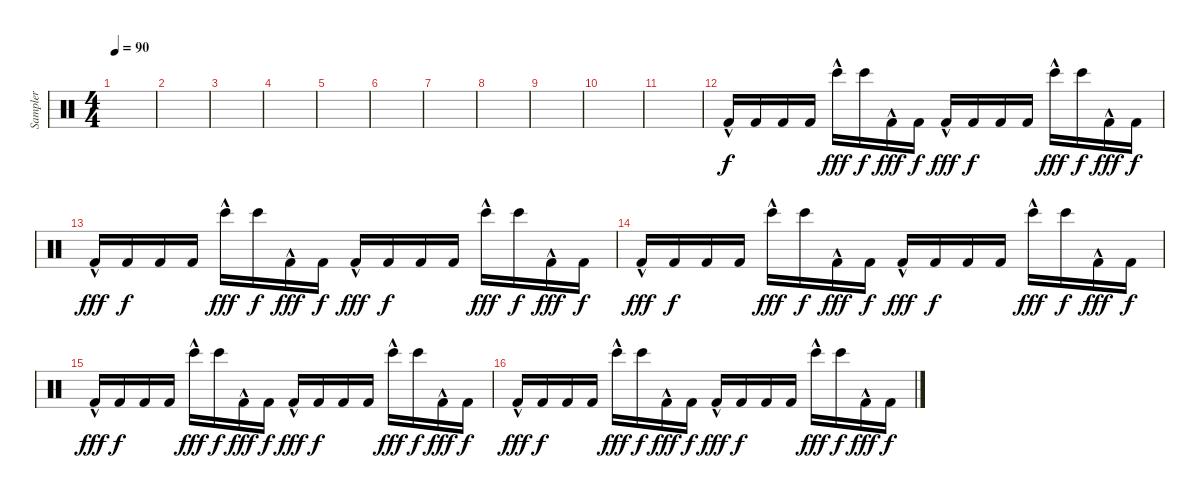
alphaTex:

\track ("Sampler" "Sampler") {instrument percussion}
\staff {score}
\articulation defaults
\ts (4 4)
\tempo 90
\clef neutral
\ks c
|
|
|
|
|
|
|
|
|
|
|
"Kick (hit) 2"{hac}.16 "Kick (hit) 2".16{dy f} "Kick (hit) 2".16 "Kick (hit) 2".16 "Bongo High (hit)"{hac}.16{dy fff} "Bongo High (hit)".16{dy f} "Kick (hit) 2"{hac}.16{dy fff} "Kick (hit) 2".16{dy f} "Kick (hit) 2"{hac}.16{dy fff} "Kick (hit) 2".16{dy f} "Kick (hit) 2".16 "Kick (hit) 2".16 "Bongo High (hit)"{hac}.16{dy fff} "Bongo High (hit)".16{dy f} "Kick (hit) 2"{hac}.16{dy fff} "Kick (hit) 2".16{dy f} |
"Kick (hit) 2"{hac}.16{dy fff} "Kick (hit) 2".16{dy f} "Kick (hit) 2".16 "Kick (hit) 2".16 "Bongo High (hit)"{hac}.16{dy fff} "Bongo High (hit)".16{dy f} "Kick (hit) 2"{hac}.16{dy fff} "Kick (hit) 2".16{dy f} "Kick (hit) 2"{hac}.16{dy fff} "Kick (hit) 2".16{dy f} "Kick (hit) 2".16 "Kick (hit) 2".16 "Bongo High (hit)"{hac}.16{dy fff} "Bongo High (hit)".16{dy f} "Kick (hit) 2"{hac}.16{dy fff} "Kick (hit) 2".16{dy f} |
"Kick (hit) 2"{hac}.16{dy fff} "Kick (hit) 2".16{dy f} "Kick (hit) 2".16 "Kick (hit) 2".16 "Bongo High (hit)"{hac}.16{dy fff} "Bongo High (hit)".16{dy f} "Kick (hit) 2"{hac}.16{dy fff} "Kick (hit) 2".16{dy f} "Kick (hit) 2"{hac}.16{dy fff} "Kick (hit) 2".16{dy f} "Kick (hit) 2".16 "Kick (hit) 2".16 "Bongo High (hit)"{hac}.16{dy fff} "Bongo High (hit)".16{dy f} "Kick (hit) 2"{hac}.16{dy fff} "Kick (hit) 2".16{dy f} |
"Kick (hit) 2"{hac}.16{dy fff} "Kick (hit) 2".16{dy f} "Kick (hit) 2".16 "Kick (hit) 2".16 "Bongo High (hit)"{hac}.16{dy fff} "Bongo High (hit)".16{dy f} "Kick (hit) 2"{hac}.16{dy fff} "Kick (hit) 2".16{dy f} "Kick (hit) 2"{hac}.16{dy fff} "Kick (hit) 2".16{dy f} "Kick (hit) 2".16 "Kick (hit) 2".16 "Bongo High (hit)"{hac}.16{dy fff} "Bongo High (hit)".16{dy f} "Kick (hit) 2"{hac}.16{dy fff} "Kick (hit) 2".16{dy f} |
"Kick (hit) 2"{hac}.16{dy fff} "Kick (hit) 2".16{dy f} "Kick (hit) 2".16 "Kick (hit) 2".16 "Bongo High (hit)"{hac}.16{dy fff} "Bongo High (hit)".16{dy f} "Kick (hit) 2"{hac}.16{dy fff} "Kick (hit) 2".16{dy f} "Kick (hit) 2"{hac}.16{dy fff} "Kick (hit) 2".16{dy f} "Kick (hit) 2".16 "Kick (hit) 2".16 "Bongo High (hit)"{hac}.16{dy fff} "Bongo High (hit)".16{dy f} "Kick (hit) 2"{hac}.16{dy fff} "Kick (hit) 2".16{dy f}
